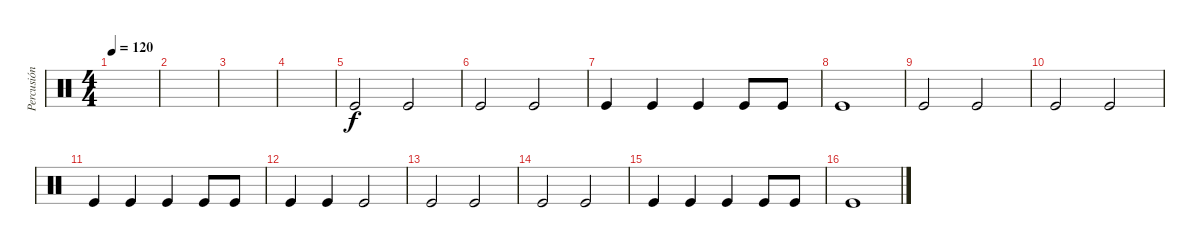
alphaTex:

\track ("Percusión" "Percusión") {instrument percussion}
\staff {score}
\articulation defaults
\ts (4 4)
\tempo 120
\clef neutral
\ks c
|
|
|
|
"Kick (hit)".2 "Kick (hit)".2 |
"Kick (hit)".2 "Kick (hit)".2 |
"Kick (hit)".4 "Kick (hit)".4 "Kick (hit)".4 "Kick (hit)".8 "Kick (hit)".8 |
"Kick (hit)".1 |
"Kick (hit)".2 "Kick (hit)".2 |
"Kick (hit)".2 "Kick (hit)".2 |
"Kick (hit)".4 "Kick (hit)".4 "Kick (hit)".4 "Kick (hit)".8 "Kick (hit)".8 |
"Kick (hit)".4 "Kick (hit)".4 "Kick (hit)".2 |
"Kick (hit)".2 "Kick (hit)".2 |
"Kick (hit)".2 "Kick (hit)".2 |
"Kick (hit)".4 "Kick (hit)".4 "Kick (hit)".4 "Kick (hit)".8 "Kick (hit)".8 |
"Kick (hit)".1
